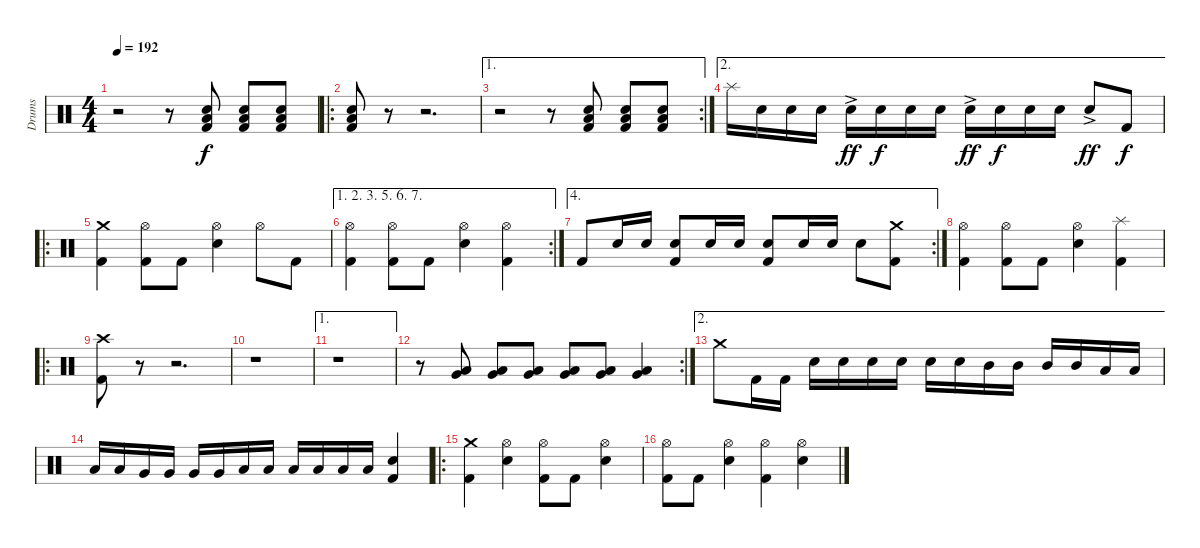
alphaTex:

\track ("Drums" "Drums") {instrument percussion}
\staff {score}
\articulation defaults
\ts (4 4)
\tempo 192
\clef neutral
\ks c
r.2{dy f} r.8 ("Low Tom (hit)" "Electric Snare (hit)" "Kick (hit) 2").8 ("Low Tom (hit)" "Electric Snare (hit)" "Kick (hit) 2").8 ("Low Tom (hit)" "Electric Snare (hit)" "Kick (hit) 2").8 |
\ro
("Low Tom (hit)" "Electric Snare (hit)" "Kick (hit) 2").8 r.8 r.2{d} |
\ae 1
\rc 2
r.2 r.8 ("Low Tom (hit)" "Electric Snare (hit)" "Kick (hit) 2").8 ("Low Tom (hit)" "Electric Snare (hit)" "Kick (hit) 2").8 ("Low Tom (hit)" "Electric Snare (hit)" "Kick (hit) 2").8 |
\ae 2 "Splash (hit)".16 "Electric Snare (hit)".16 "Electric Snare (hit)".16 "Electric Snare (hit)".16 "Electric Snare (hit)"{ac}.16{dy ff} "Electric Snare (hit)".16{dy f} "Electric Snare (hit)".16 "Electric Snare (hit)".16 "Electric Snare (hit)"{ac}.16{dy ff} "Electric Snare (hit)".16{dy f} "Electric Snare (hit)".16 "Electric Snare (hit)".16 "Electric Snare (hit)"{ac}.8{dy ff} "Kick (hit) 2".8{dy f}
|
\ro
("Crash medium (hit)" "Kick (hit) 2").4 ("Hi-Hat (open)" "Kick (hit) 2").8 "Kick (hit) 2".8 ("Hi-Hat (open)" "Electric Snare (hit)").4 "Hi-Hat (open)".8 "Kick (hit) 2".8 |
\ae (1 2 3 5 6 7)
\rc 2
("Hi-Hat (open)" "Kick (hit) 2").4 ("Hi-Hat (open)" "Kick (hit) 2").8 "Kick (hit) 2".8 ("Hi-Hat (open)" "Electric Snare (hit)").4 ("Hi-Hat (open)" "Kick (hit) 2").4 |
\ae 4
\rc 2 "Kick (hit) 2".8 "Electric Snare (hit)".16 "Electric Snare (hit)".16
("Electric Snare (hit)" "Kick (hit) 2").8 "Electric Snare (hit)".16 "Electric Snare (hit)".16 ("Electric Snare (hit)" "Kick (hit) 2").8 "Electric Snare (hit)".16 "Electric Snare (hit)".16 "Electric Snare (hit)".8 ("Crash medium (hit)" "Kick (hit) 2").8 |
("Hi-Hat (open)" "Kick (hit) 2").4 ("Hi-Hat (open)" "Kick (hit) 2").8 "Kick (hit) 2".8 ("Hi-Hat (open)" "Electric Snare (hit)").4 ("Splash (hit)" "Kick (hit) 2").4 |
\ro
("Crash high (hit)" "Kick (hit) 2").8 r.8 r.2{d} |
r.1 |
\ae 1
r.1 |
\rc 2
r.8 ("Very Low Tom (hit)" "Low Floor Tom (hit)").8 ("Very Low Tom (hit)" "Low Floor Tom (hit)").8 ("Very Low Tom (hit)" "Low Floor Tom (hit)").8 ("Very Low Tom (hit)" "Low Floor Tom (hit)").8 ("Very Low Tom (hit)" "Low Floor Tom (hit)").8 ("Very Low Tom (hit)" "Low Floor Tom (hit)").4 |
\ae 2 "Crash medium (hit)".8 "Kick (hit) 2".16 "Kick (hit) 2".16 "Electric Snare (hit)".16 "Electric Snare (hit)".16 "Electric Snare (hit)".16 "Electric Snare (hit)".16 "Electric Snare (hit)".16 "Electric Snare (hit)".16 "Mid Tom (hit)".16 "Mid Tom (hit)".16 "Mid Tom (hit)".16 "Mid Tom (hit)".16 "Low Tom (hit)".16 "Low Tom (hit)".16
|
"Low Tom (hit)".16 "Low Tom (hit)".16 "Very Low Tom (hit)".16 "Very Low Tom (hit)".16 "Very Low Tom (hit)".16 "Very Low Tom (hit)".16 "Low Floor Tom (hit)".16 "Low Floor Tom (hit)".16 "Low Floor Tom (hit)".16 "Low Floor Tom (hit)".16 "Low Floor Tom (hit)".16 "Low Floor Tom (hit)".16 ("Electric Snare (hit)" "Kick (hit) 2").4 |
\ro
("Crash medium (hit)" "Kick (hit) 2").4 ("Hi-Hat (open)" "Electric Snare (hit)").4 ("Hi-Hat (open)" "Kick (hit) 2").8 "Kick (hit) 2".8 ("Hi-Hat (open)" "Electric Snare (hit)").4 |
("Hi-Hat (open)" "Kick (hit) 2").8 "Kick (hit) 2".8 ("Hi-Hat (open)" "Electric Snare (hit)").4 ("Hi-Hat (open)" "Kick (hit) 2").4 ("Hi-Hat (open)" "Electric Snare (hit)").4
